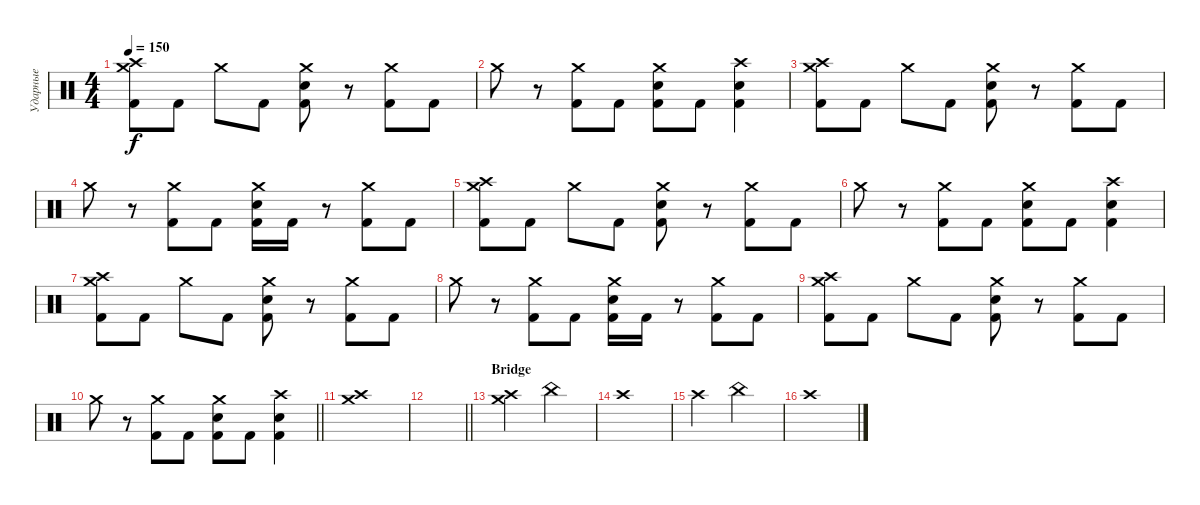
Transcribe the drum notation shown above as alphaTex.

\track ("Ударные" "Ударные") {instrument percussion}
\staff {score}
\articulation defaults
\ts (4 4)
\tempo 150
\clef neutral
\ks c
("Crash high (hit)" "Crash medium (hit)" "Kick (hit) 2").8{dy f} "Kick (hit) 2".8 "Crash medium (hit)".8 "Kick (hit) 2".8 ("Crash medium (hit)" "Electric Snare (hit)" "Kick (hit) 2").8 r.8 ("Crash medium (hit)" "Kick (hit) 2").8 "Kick (hit) 2".8 |
"Crash medium (hit)".8 r.8 ("Crash medium (hit)" "Kick (hit) 2").8 "Kick (hit) 2".8 ("Crash medium (hit)" "Electric Snare (hit)" "Kick (hit) 2").8 "Kick (hit) 2".8 ("Crash high (hit)" "Electric Snare (hit)" "Kick (hit) 2").4 |
("Crash high (hit)" "Crash medium (hit)" "Kick (hit) 2").8 "Kick (hit) 2".8 "Crash medium (hit)".8 "Kick (hit) 2".8 ("Crash medium (hit)" "Electric Snare (hit)" "Kick (hit) 2").8 r.8 ("Crash medium (hit)" "Kick (hit) 2").8 "Kick (hit) 2".8 |
"Crash medium (hit)".8 r.8 ("Crash medium (hit)" "Kick (hit) 2").8 "Kick (hit) 2".8 ("Crash medium (hit)" "Electric Snare (hit)" "Kick (hit) 2").16 "Kick (hit) 2".16 r.8 ("Crash medium (hit)" "Kick (hit) 2").8 "Kick (hit) 2".8 |
("Crash high (hit)" "Crash medium (hit)" "Kick (hit) 2").8 "Kick (hit) 2".8 "Crash medium (hit)".8 "Kick (hit) 2".8 ("Crash medium (hit)" "Electric Snare (hit)" "Kick (hit) 2").8 r.8 ("Crash medium (hit)" "Kick (hit) 2").8 "Kick (hit) 2".8 |
"Crash medium (hit)".8 r.8 ("Crash medium (hit)" "Kick (hit) 2").8 "Kick (hit) 2".8 ("Crash medium (hit)" "Electric Snare (hit)" "Kick (hit) 2").8 "Kick (hit) 2".8 ("Crash high (hit)" "Electric Snare (hit)" "Kick (hit) 2").4 |
("Crash high (hit)" "Crash medium (hit)" "Kick (hit) 2").8 "Kick (hit) 2".8 "Crash medium (hit)".8 "Kick (hit) 2".8 ("Crash medium (hit)" "Electric Snare (hit)" "Kick (hit) 2").8 r.8 ("Crash medium (hit)" "Kick (hit) 2").8 "Kick (hit) 2".8 |
"Crash medium (hit)".8 r.8 ("Crash medium (hit)" "Kick (hit) 2").8 "Kick (hit) 2".8 ("Crash medium (hit)" "Electric Snare (hit)" "Kick (hit) 2").16 "Kick (hit) 2".16 r.8 ("Crash medium (hit)" "Kick (hit) 2").8 "Kick (hit) 2".8 |
("Crash high (hit)" "Crash medium (hit)" "Kick (hit) 2").8 "Kick (hit) 2".8 "Crash medium (hit)".8 "Kick (hit) 2".8 ("Crash medium (hit)" "Electric Snare (hit)" "Kick (hit) 2").8 r.8 ("Crash medium (hit)" "Kick (hit) 2").8 "Kick (hit) 2".8 |
\barLineRight lightlight "Crash medium (hit)".8
r.8 ("Crash medium (hit)" "Kick (hit) 2").8 "Kick (hit) 2".8 ("Crash medium (hit)" "Electric Snare (hit)" "Kick (hit) 2").8 "Kick (hit) 2".8 ("Crash high (hit)" "Electric Snare (hit)" "Kick (hit) 2").4 |
("Crash high (hit)" "Crash medium (hit)").1 |
\barLineRight lightlight
|
\section ("" "Bridge")
("Crash high (hit)" "Crash medium (hit)").2 "China (hit)".2 |
"Crash high (hit)".1 |
"Crash high (hit)".2 "China (hit)".2 |
"Crash high (hit)".1
